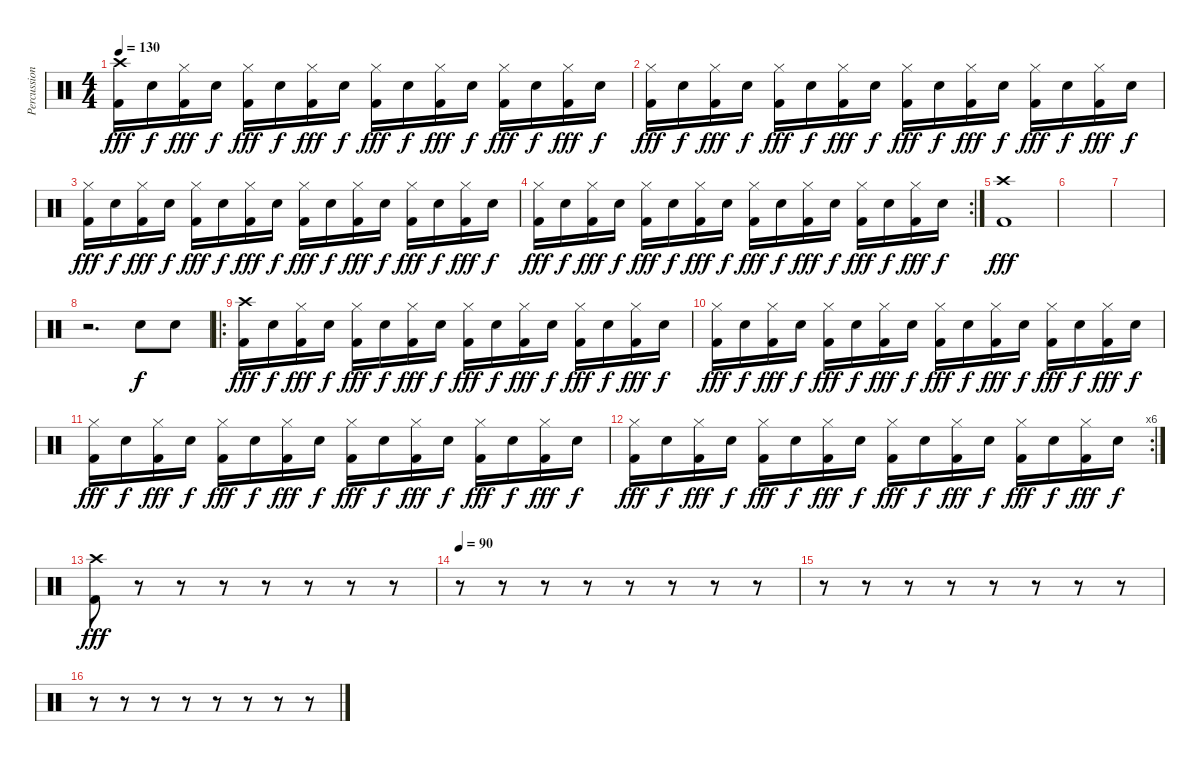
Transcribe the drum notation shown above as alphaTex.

\track ("Percussion" "Percussion") {instrument percussion}
\staff {score}
\articulation defaults
\ts (4 4)
\tempo 130
\clef neutral
\ks c
("Crash high (hit)" "Kick (hit) 2").16{dy fff} "Snare (hit) 2".16{dy f} ("Hi-Hat (closed)" "Kick (hit) 2").16{dy fff} "Snare (hit) 2".16{dy f} ("Hi-Hat (closed)" "Kick (hit) 2").16{dy fff} "Snare (hit) 2".16{dy f} ("Hi-Hat (closed)" "Kick (hit) 2").16{dy fff} "Snare (hit) 2".16{dy f} ("Hi-Hat (closed)" "Kick (hit) 2").16{dy fff} "Snare (hit) 2".16{dy f} ("Hi-Hat (closed)" "Kick (hit) 2").16{dy fff} "Snare (hit) 2".16{dy f} ("Hi-Hat (closed)" "Kick (hit) 2").16{dy fff} "Snare (hit) 2".16{dy f} ("Hi-Hat (closed)" "Kick (hit) 2").16{dy fff} "Snare (hit) 2".16{dy f} |
("Hi-Hat (closed)" "Kick (hit) 2").16{dy fff} "Snare (hit) 2".16{dy f} ("Hi-Hat (closed)" "Kick (hit) 2").16{dy fff} "Snare (hit) 2".16{dy f} ("Hi-Hat (closed)" "Kick (hit) 2").16{dy fff} "Snare (hit) 2".16{dy f} ("Hi-Hat (closed)" "Kick (hit) 2").16{dy fff} "Snare (hit) 2".16{dy f} ("Hi-Hat (closed)" "Kick (hit) 2").16{dy fff} "Snare (hit) 2".16{dy f} ("Hi-Hat (closed)" "Kick (hit) 2").16{dy fff} "Snare (hit) 2".16{dy f} ("Hi-Hat (closed)" "Kick (hit) 2").16{dy fff} "Snare (hit) 2".16{dy f} ("Hi-Hat (closed)" "Kick (hit) 2").16{dy fff} "Snare (hit) 2".16{dy f} |
("Hi-Hat (closed)" "Kick (hit) 2").16{dy fff} "Snare (hit) 2".16{dy f} ("Hi-Hat (closed)" "Kick (hit) 2").16{dy fff} "Snare (hit) 2".16{dy f} ("Hi-Hat (closed)" "Kick (hit) 2").16{dy fff} "Snare (hit) 2".16{dy f} ("Hi-Hat (closed)" "Kick (hit) 2").16{dy fff} "Snare (hit) 2".16{dy f} ("Hi-Hat (closed)" "Kick (hit) 2").16{dy fff} "Snare (hit) 2".16{dy f} ("Hi-Hat (closed)" "Kick (hit) 2").16{dy fff} "Snare (hit) 2".16{dy f} ("Hi-Hat (closed)" "Kick (hit) 2").16{dy fff} "Snare (hit) 2".16{dy f} ("Hi-Hat (closed)" "Kick (hit) 2").16{dy fff} "Snare (hit) 2".16{dy f} |
\rc 2
("Hi-Hat (closed)" "Kick (hit) 2").16{dy fff} "Snare (hit) 2".16{dy f} ("Hi-Hat (closed)" "Kick (hit) 2").16{dy fff} "Snare (hit) 2".16{dy f} ("Hi-Hat (closed)" "Kick (hit) 2").16{dy fff} "Snare (hit) 2".16{dy f} ("Hi-Hat (closed)" "Kick (hit) 2").16{dy fff} "Snare (hit) 2".16{dy f} ("Hi-Hat (closed)" "Kick (hit) 2").16{dy fff} "Snare (hit) 2".16{dy f} ("Hi-Hat (closed)" "Kick (hit) 2").16{dy fff} "Snare (hit) 2".16{dy f} ("Hi-Hat (closed)" "Kick (hit) 2").16{dy fff} "Snare (hit) 2".16{dy f} ("Hi-Hat (closed)" "Kick (hit) 2").16{dy fff} "Snare (hit) 2".16{dy f} |
("Crash high (hit)" "Kick (hit) 2").1{dy fff} |
|
|
r.2{d} "Snare (hit) 2".8{dy f} "Snare (hit) 2".8 |
\ro
("Crash high (hit)" "Kick (hit) 2").16{dy fff} "Snare (hit) 2".16{dy f} ("Hi-Hat (closed)" "Kick (hit) 2").16{dy fff} "Snare (hit) 2".16{dy f} ("Hi-Hat (closed)" "Kick (hit) 2").16{dy fff} "Snare (hit) 2".16{dy f} ("Hi-Hat (closed)" "Kick (hit) 2").16{dy fff} "Snare (hit) 2".16{dy f} ("Hi-Hat (closed)" "Kick (hit) 2").16{dy fff} "Snare (hit) 2".16{dy f} ("Hi-Hat (closed)" "Kick (hit) 2").16{dy fff} "Snare (hit) 2".16{dy f} ("Hi-Hat (closed)" "Kick (hit) 2").16{dy fff} "Snare (hit) 2".16{dy f} ("Hi-Hat (closed)" "Kick (hit) 2").16{dy fff} "Snare (hit) 2".16{dy f} |
("Hi-Hat (closed)" "Kick (hit) 2").16{dy fff} "Snare (hit) 2".16{dy f} ("Hi-Hat (closed)" "Kick (hit) 2").16{dy fff} "Snare (hit) 2".16{dy f} ("Hi-Hat (closed)" "Kick (hit) 2").16{dy fff} "Snare (hit) 2".16{dy f} ("Hi-Hat (closed)" "Kick (hit) 2").16{dy fff} "Snare (hit) 2".16{dy f} ("Hi-Hat (closed)" "Kick (hit) 2").16{dy fff} "Snare (hit) 2".16{dy f} ("Hi-Hat (closed)" "Kick (hit) 2").16{dy fff} "Snare (hit) 2".16{dy f} ("Hi-Hat (closed)" "Kick (hit) 2").16{dy fff} "Snare (hit) 2".16{dy f} ("Hi-Hat (closed)" "Kick (hit) 2").16{dy fff} "Snare (hit) 2".16{dy f} |
("Hi-Hat (closed)" "Kick (hit) 2").16{dy fff} "Snare (hit) 2".16{dy f} ("Hi-Hat (closed)" "Kick (hit) 2").16{dy fff} "Snare (hit) 2".16{dy f} ("Hi-Hat (closed)" "Kick (hit) 2").16{dy fff} "Snare (hit) 2".16{dy f} ("Hi-Hat (closed)" "Kick (hit) 2").16{dy fff} "Snare (hit) 2".16{dy f} ("Hi-Hat (closed)" "Kick (hit) 2").16{dy fff} "Snare (hit) 2".16{dy f} ("Hi-Hat (closed)" "Kick (hit) 2").16{dy fff} "Snare (hit) 2".16{dy f} ("Hi-Hat (closed)" "Kick (hit) 2").16{dy fff} "Snare (hit) 2".16{dy f} ("Hi-Hat (closed)" "Kick (hit) 2").16{dy fff} "Snare (hit) 2".16{dy f} |
\rc 6
("Hi-Hat (closed)" "Kick (hit) 2").16{dy fff} "Snare (hit) 2".16{dy f} ("Hi-Hat (closed)" "Kick (hit) 2").16{dy fff} "Snare (hit) 2".16{dy f} ("Hi-Hat (closed)" "Kick (hit) 2").16{dy fff} "Snare (hit) 2".16{dy f} ("Hi-Hat (closed)" "Kick (hit) 2").16{dy fff} "Snare (hit) 2".16{dy f} ("Hi-Hat (closed)" "Kick (hit) 2").16{dy fff} "Snare (hit) 2".16{dy f} ("Hi-Hat (closed)" "Kick (hit) 2").16{dy fff} "Snare (hit) 2".16{dy f} ("Hi-Hat (closed)" "Kick (hit) 2").16{dy fff} "Snare (hit) 2".16{dy f} ("Hi-Hat (closed)" "Kick (hit) 2").16{dy fff} "Snare (hit) 2".16{dy f} |
("Crash high (hit)" "Kick (hit) 2").8{dy fff} r.8 r.8 r.8 r.8 r.8 r.8 r.8 |
\tempo 90
r.8 r.8 r.8 r.8 r.8 r.8 r.8 r.8 |
r.8 r.8 r.8 r.8 r.8 r.8 r.8 r.8 |
r.8 r.8 r.8 r.8 r.8 r.8 r.8 r.8
